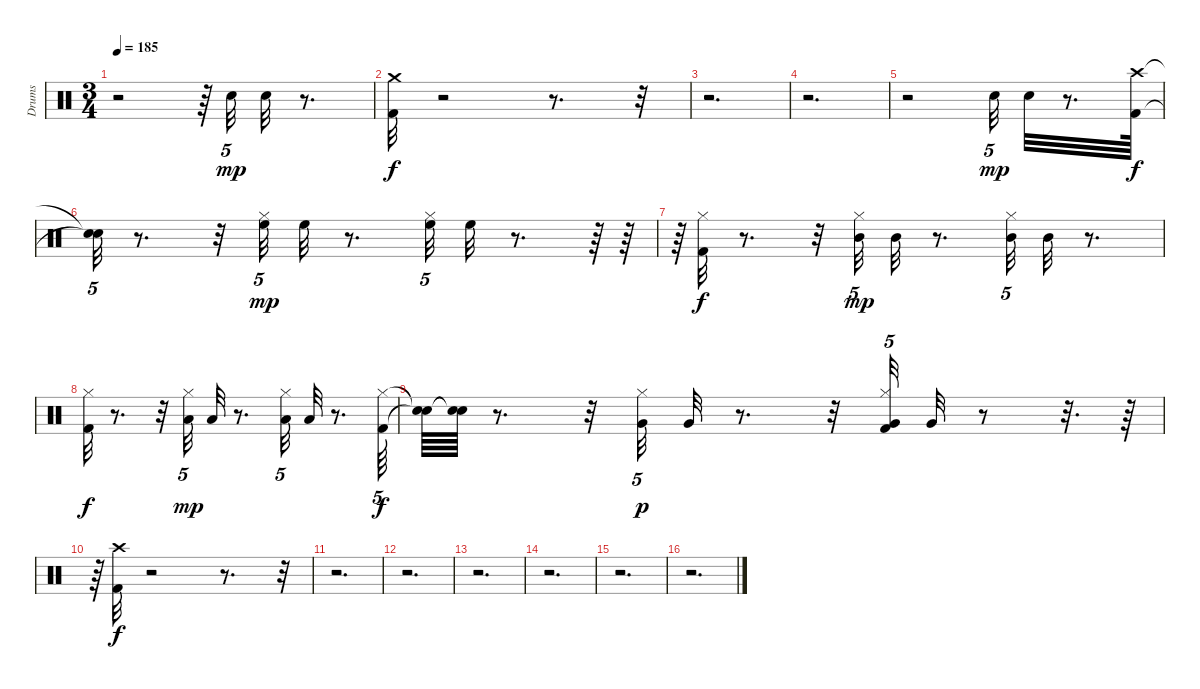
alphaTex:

\track ("Drums" "Drums") {instrument percussion}
\staff {score}
\articulation defaults
\ts (3 4)
\tempo 185
\clef neutral
\ks c
r.2{dy f} r.64 "Electric Snare (hit)".32{tu (5 4) dy mp} "Electric Snare (hit)".32 r.8{d} |
("Crash medium (hit)" "Kick (hit) 2").32{dy f} r.2 r.8{d} r.32 |
r.2{d} |
r.2{d} |
r.2 "Electric Snare (hit)".32{tu (5 4) dy mp} "Electric Snare (hit)".32 r.8{d} ("Kick (hit) 2" "Crash high (hit)").64{dy f} |
("Snare (hit)"{t} "Snare (hit)"{t}).32{tu (5 4)} r.8{d} r.32 ("Hi-Hat (closed)" "High Floor Tom (hit)").32{tu (5 4) dy mp} "High Floor Tom (hit)".32 r.8{d} ("Hi-Hat (closed)" "High Floor Tom (hit)").32{tu (5 4)} "High Floor Tom (hit)".32 r.8{d} r.64 r.64 |
r.64{tu (5 4)} ("Hi-Hat (closed)" "Kick (hit) 2").32{dy f} r.8{d} r.32 ("Hi-Hat (closed)" "Mid Tom (hit)").32{tu (5 4) dy mp} "Mid Tom (hit)".32 r.8{d} ("Hi-Hat (closed)" "Mid Tom (hit)").32{tu (5 4)} "Mid Tom (hit)".32 r.8{d} |
("Hi-Hat (closed)" "Kick (hit) 2").32{dy f} r.8{d} r.32 ("Hi-Hat (closed)" "Low Tom (hit)").32{tu (5 4) dy mp} "Low Tom (hit)".32 r.8{d} ("Hi-Hat (closed)" "Low Tom (hit)").32{tu (5 4)} "Low Tom (hit)".32 r.8{d} ("Hi-Hat (closed)" "Kick (hit) 2").64{tu (5 4) dy f} |
("Snare (hit)"{t} "Snare (hit)"{t}).64 ("Snare (hit)"{t} "Snare (hit)"{t}).64 r.8{d} r.32 ("Hi-Hat (closed)" "Very Low Tom (hit)").32{tu (5 4) dy p} "Very Low Tom (hit)".32 r.8{d} r.32 ("Hi-Hat (closed)" "Very Low Tom (hit)" "Kick (hit) 2").32{tu (5 4)} "Very Low Tom (hit)".32 r.8 r.32{d} r.64 |
r.64 ("Crash high (hit)" "Kick (hit) 2").32{dy f} r.2 r.8{d} r.32{tu (5 4)} |
r.2{d} |
r.2{d} |
r.2{d} |
r.2{d} |
r.2{d} |
r.2{d}
